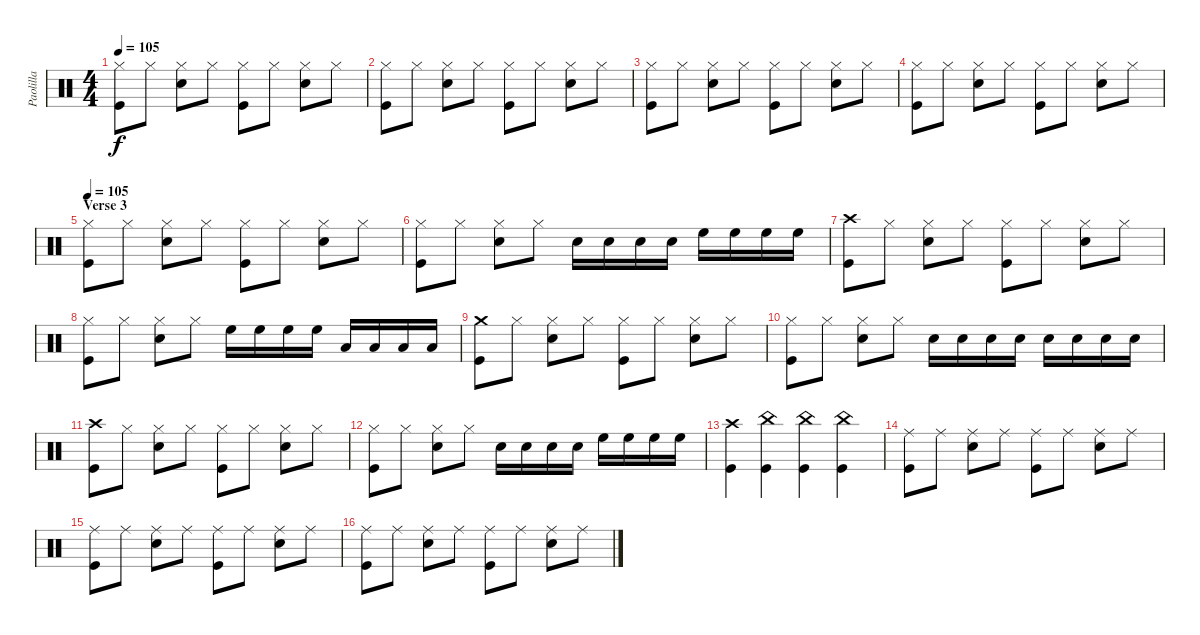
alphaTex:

\track ("Paolilla" "Paolilla") {instrument percussion}
\staff {score}
\articulation defaults
\ts (4 4)
\tempo 105
\clef neutral
\ks c
("Hi-Hat (closed)" "Kick (hit)").8{dy f} "Hi-Hat (closed)".8 ("Hi-Hat (closed)" "Snare (hit) 2").8 "Hi-Hat (closed)".8 ("Hi-Hat (closed)" "Kick (hit)").8 "Hi-Hat (closed)".8 ("Hi-Hat (closed)" "Snare (hit) 2").8 "Hi-Hat (closed)".8 |
("Hi-Hat (closed)" "Kick (hit)").8 "Hi-Hat (closed)".8 ("Hi-Hat (closed)" "Snare (hit) 2").8 "Hi-Hat (closed)".8 ("Hi-Hat (closed)" "Kick (hit)").8 "Hi-Hat (closed)".8 ("Hi-Hat (closed)" "Snare (hit) 2").8 "Hi-Hat (closed)".8 |
("Hi-Hat (closed)" "Kick (hit)").8 "Hi-Hat (closed)".8 ("Hi-Hat (closed)" "Snare (hit) 2").8 "Hi-Hat (closed)".8 ("Hi-Hat (closed)" "Kick (hit)").8 "Hi-Hat (closed)".8 ("Hi-Hat (closed)" "Snare (hit) 2").8 "Hi-Hat (closed)".8 |
("Hi-Hat (closed)" "Kick (hit)").8 "Hi-Hat (closed)".8 ("Hi-Hat (closed)" "Snare (hit) 2").8 "Hi-Hat (closed)".8 ("Hi-Hat (closed)" "Kick (hit)").8 "Hi-Hat (closed)".8 ("Hi-Hat (closed)" "Snare (hit) 2").8 "Hi-Hat (closed)".8 |
\section ("" "Verse 3")
\tempo 105
("Hi-Hat (closed)" "Kick (hit)").8 "Hi-Hat (closed)".8 ("Hi-Hat (closed)" "Snare (hit) 2").8 "Hi-Hat (closed)".8 ("Hi-Hat (closed)" "Kick (hit)").8 "Hi-Hat (closed)".8 ("Hi-Hat (closed)" "Snare (hit) 2").8 "Hi-Hat (closed)".8 |
("Hi-Hat (closed)" "Kick (hit)").8 "Hi-Hat (closed)".8 ("Hi-Hat (closed)" "Snare (hit) 2").8 "Hi-Hat (closed)".8 "Snare (hit) 2".16 "Snare (hit) 2".16 "Snare (hit) 2".16 "Snare (hit) 2".16 "High Floor Tom (hit)".16 "High Floor Tom (hit)".16 "High Floor Tom (hit)".16 "High Floor Tom (hit)".16 |
("Crash high (hit)" "Kick (hit)").8 "Hi-Hat (closed)".8 ("Hi-Hat (closed)" "Snare (hit) 2").8 "Hi-Hat (closed)".8 ("Hi-Hat (closed)" "Kick (hit)").8 "Hi-Hat (closed)".8 ("Hi-Hat (closed)" "Snare (hit) 2").8 "Hi-Hat (closed)".8 |
("Hi-Hat (closed)" "Kick (hit)").8 "Hi-Hat (closed)".8 ("Hi-Hat (closed)" "Snare (hit) 2").8 "Hi-Hat (closed)".8 "High Floor Tom (hit)".16 "High Floor Tom (hit)".16 "High Floor Tom (hit)".16 "High Floor Tom (hit)".16 "Low Tom (hit)".16 "Low Tom (hit)".16 "Low Tom (hit)".16 "Low Tom (hit)".16 |
("Crash medium (hit)" "Kick (hit)").8 "Hi-Hat (closed)".8 ("Hi-Hat (closed)" "Snare (hit) 2").8 "Hi-Hat (closed)".8 ("Hi-Hat (closed)" "Kick (hit)").8 "Hi-Hat (closed)".8 ("Hi-Hat (closed)" "Snare (hit) 2").8 "Hi-Hat (closed)".8 |
("Hi-Hat (closed)" "Kick (hit)").8 "Hi-Hat (closed)".8 ("Hi-Hat (closed)" "Snare (hit) 2").8 "Hi-Hat (closed)".8 "Snare (hit) 2".16 "Snare (hit) 2".16 "Snare (hit) 2".16 "Snare (hit) 2".16 "Snare (hit) 2".16 "Snare (hit) 2".16 "Snare (hit) 2".16 "Snare (hit) 2".16 |
("Crash high (hit)" "Kick (hit)").8 "Hi-Hat (closed)".8 ("Hi-Hat (closed)" "Snare (hit) 2").8 "Hi-Hat (closed)".8 ("Hi-Hat (closed)" "Kick (hit)").8 "Hi-Hat (closed)".8 ("Hi-Hat (closed)" "Snare (hit) 2").8 "Hi-Hat (closed)".8 |
("Hi-Hat (closed)" "Kick (hit)").8 "Hi-Hat (closed)".8 ("Hi-Hat (closed)" "Snare (hit) 2").8 "Hi-Hat (closed)".8 "Snare (hit) 2".16 "Snare (hit) 2".16 "Snare (hit) 2".16 "Snare (hit) 2".16 "High Floor Tom (hit)".16 "High Floor Tom (hit)".16 "High Floor Tom (hit)".16 "High Floor Tom (hit)".16 |
("Crash high (hit)" "Kick (hit)").4 ("China (hit)" "Kick (hit)").4 ("China (hit)" "Kick (hit)").4 ("China (hit)" "Kick (hit)").4 |
("Ride (middle)" "Kick (hit)").8 "Ride (middle)".8 ("Ride (middle)" "Snare (hit) 2").8 "Ride (middle)".8 ("Ride (middle)" "Kick (hit)").8 "Ride (middle)".8 ("Ride (middle)" "Snare (hit) 2").8 "Ride (middle)".8 |
("Ride (middle)" "Kick (hit)").8 "Ride (middle)".8 ("Ride (middle)" "Snare (hit) 2").8 "Ride (middle)".8 ("Ride (middle)" "Kick (hit)").8 "Ride (middle)".8 ("Ride (middle)" "Snare (hit) 2").8 "Ride (middle)".8 |
("Ride (middle)" "Kick (hit)").8 "Ride (middle)".8 ("Ride (middle)" "Snare (hit) 2").8 "Ride (middle)".8 ("Ride (middle)" "Kick (hit)").8 "Ride (middle)".8 ("Ride (middle)" "Snare (hit) 2").8 "Ride (middle)".8
